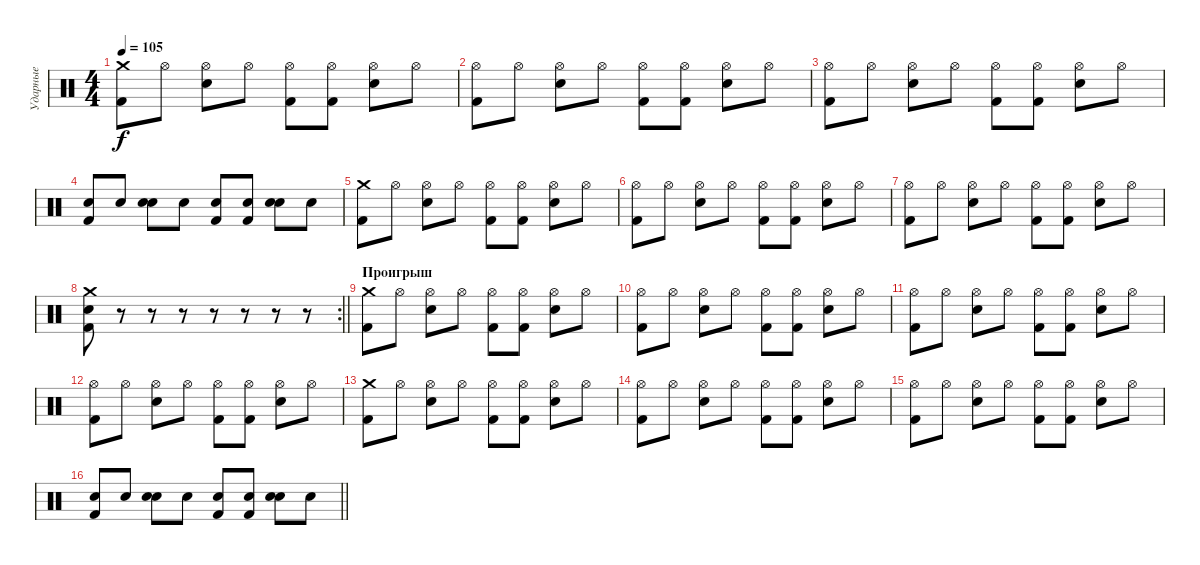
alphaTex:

\track ("Ударные" "Ударные") {instrument percussion}
\staff {score}
\articulation defaults
\ts (4 4)
\tempo 105
\clef neutral
\ks c
("Crash medium (hit)" "Kick (hit) 2").8{dy f} "Hi-Hat (open)".8 ("Hi-Hat (open)" "Snare (hit) 2").8 "Hi-Hat (open)".8 ("Hi-Hat (open)" "Kick (hit) 2").8 ("Hi-Hat (open)" "Kick (hit) 2").8 ("Hi-Hat (open)" "Snare (hit) 2").8 "Hi-Hat (open)".8 |
("Hi-Hat (open)" "Kick (hit) 2").8 "Hi-Hat (open)".8 ("Hi-Hat (open)" "Snare (hit) 2").8 "Hi-Hat (open)".8 ("Hi-Hat (open)" "Kick (hit) 2").8 ("Hi-Hat (open)" "Kick (hit) 2").8 ("Hi-Hat (open)" "Snare (hit) 2").8 "Hi-Hat (open)".8 |
("Hi-Hat (open)" "Kick (hit) 2").8 "Hi-Hat (open)".8 ("Hi-Hat (open)" "Snare (hit) 2").8 "Hi-Hat (open)".8 ("Hi-Hat (open)" "Kick (hit) 2").8 ("Hi-Hat (open)" "Kick (hit) 2").8 ("Hi-Hat (open)" "Snare (hit) 2").8 "Hi-Hat (open)".8 |
("Snare (hit) 2" "Kick (hit) 2").8 "Snare (hit) 2".8 ("Snare (hit) 2" "Snare (hit) 2").8 "Snare (hit) 2".8 ("Snare (hit) 2" "Kick (hit) 2").8 ("Snare (hit) 2" "Kick (hit) 2").8 ("Snare (hit) 2" "Snare (hit) 2").8 "Snare (hit) 2".8 |
("Crash medium (hit)" "Kick (hit) 2").8 "Hi-Hat (open)".8 ("Hi-Hat (open)" "Snare (hit) 2").8 "Hi-Hat (open)".8 ("Hi-Hat (open)" "Kick (hit) 2").8 ("Hi-Hat (open)" "Kick (hit) 2").8 ("Hi-Hat (open)" "Snare (hit) 2").8 "Hi-Hat (open)".8 |
("Hi-Hat (open)" "Kick (hit) 2").8 "Hi-Hat (open)".8 ("Hi-Hat (open)" "Snare (hit) 2").8 "Hi-Hat (open)".8 ("Hi-Hat (open)" "Kick (hit) 2").8 ("Hi-Hat (open)" "Kick (hit) 2").8 ("Hi-Hat (open)" "Snare (hit) 2").8 "Hi-Hat (open)".8 |
("Hi-Hat (open)" "Kick (hit) 2").8 "Hi-Hat (open)".8 ("Hi-Hat (open)" "Snare (hit) 2").8 "Hi-Hat (open)".8 ("Hi-Hat (open)" "Kick (hit) 2").8 ("Hi-Hat (open)" "Kick (hit) 2").8 ("Hi-Hat (open)" "Snare (hit) 2").8 "Hi-Hat (open)".8 |
\rc 2
\barLineRight lightlight
("Crash medium (hit)" "Snare (hit) 2" "Kick (hit) 2").8 r.8 r.8 r.8 r.8 r.8 r.8 r.8 |
\section ("" "Проигрыш")
("Crash medium (hit)" "Kick (hit) 2").8 "Hi-Hat (open)".8 ("Hi-Hat (open)" "Snare (hit) 2").8 "Hi-Hat (open)".8 ("Hi-Hat (open)" "Kick (hit) 2").8 ("Hi-Hat (open)" "Kick (hit) 2").8 ("Hi-Hat (open)" "Snare (hit) 2").8 "Hi-Hat (open)".8 |
("Hi-Hat (open)" "Kick (hit) 2").8 "Hi-Hat (open)".8 ("Hi-Hat (open)" "Snare (hit) 2").8 "Hi-Hat (open)".8 ("Hi-Hat (open)" "Kick (hit) 2").8 ("Hi-Hat (open)" "Kick (hit) 2").8 ("Hi-Hat (open)" "Snare (hit) 2").8 "Hi-Hat (open)".8 |
("Hi-Hat (open)" "Kick (hit) 2").8 "Hi-Hat (open)".8 ("Hi-Hat (open)" "Snare (hit) 2").8 "Hi-Hat (open)".8 ("Hi-Hat (open)" "Kick (hit) 2").8 ("Hi-Hat (open)" "Kick (hit) 2").8 ("Hi-Hat (open)" "Snare (hit) 2").8 "Hi-Hat (open)".8 |
("Hi-Hat (open)" "Kick (hit) 2").8 "Hi-Hat (open)".8 ("Hi-Hat (open)" "Snare (hit) 2").8 "Hi-Hat (open)".8 ("Hi-Hat (open)" "Kick (hit) 2").8 ("Hi-Hat (open)" "Kick (hit) 2").8 ("Hi-Hat (open)" "Snare (hit) 2").8 "Hi-Hat (open)".8 |
("Crash medium (hit)" "Kick (hit) 2").8 "Hi-Hat (open)".8 ("Hi-Hat (open)" "Snare (hit) 2").8 "Hi-Hat (open)".8 ("Hi-Hat (open)" "Kick (hit) 2").8 ("Hi-Hat (open)" "Kick (hit) 2").8 ("Hi-Hat (open)" "Snare (hit) 2").8 "Hi-Hat (open)".8 |
("Hi-Hat (open)" "Kick (hit) 2").8 "Hi-Hat (open)".8 ("Hi-Hat (open)" "Snare (hit) 2").8 "Hi-Hat (open)".8 ("Hi-Hat (open)" "Kick (hit) 2").8 ("Hi-Hat (open)" "Kick (hit) 2").8 ("Hi-Hat (open)" "Snare (hit) 2").8 "Hi-Hat (open)".8 |
("Hi-Hat (open)" "Kick (hit) 2").8 "Hi-Hat (open)".8 ("Hi-Hat (open)" "Snare (hit) 2").8 "Hi-Hat (open)".8 ("Hi-Hat (open)" "Kick (hit) 2").8 ("Hi-Hat (open)" "Kick (hit) 2").8 ("Hi-Hat (open)" "Snare (hit) 2").8 "Hi-Hat (open)".8 |
\barLineRight lightlight
("Snare (hit) 2" "Kick (hit) 2").8 "Snare (hit) 2".8 ("Snare (hit) 2" "Snare (hit) 2").8 "Snare (hit) 2".8 ("Snare (hit) 2" "Kick (hit) 2").8 ("Snare (hit) 2" "Kick (hit) 2").8 ("Snare (hit) 2" "Snare (hit) 2").8 "Snare (hit) 2".8
